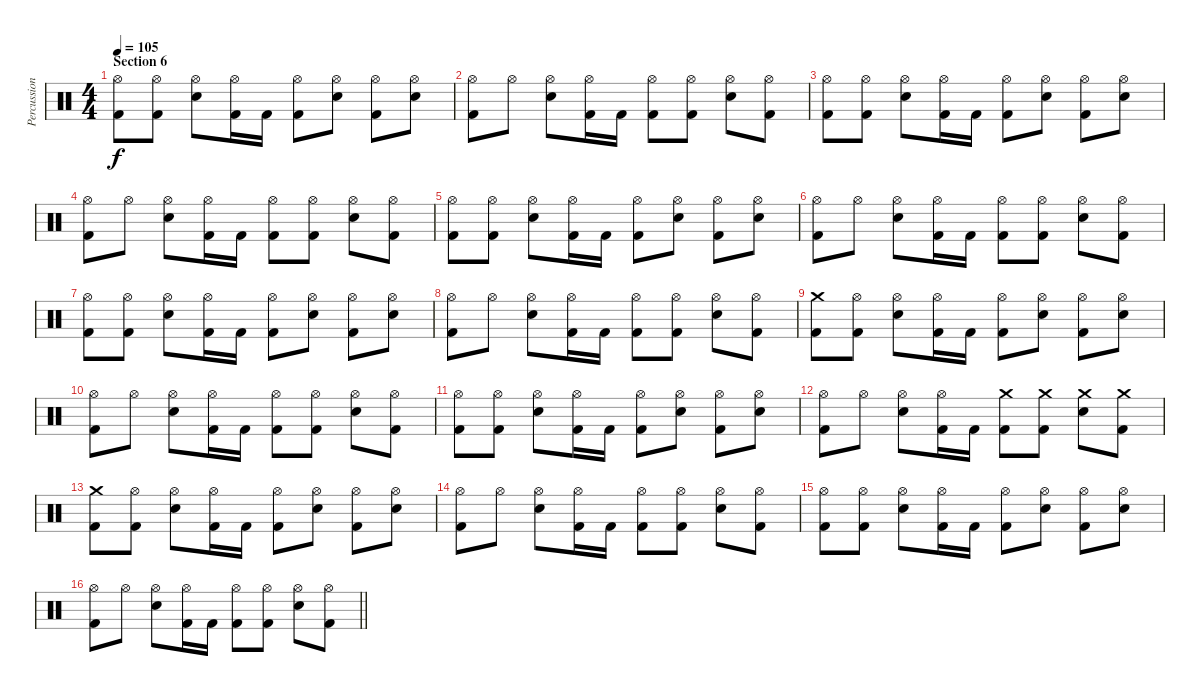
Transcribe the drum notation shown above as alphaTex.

\track ("Percussion" "Percussion") {instrument percussion}
\staff {score}
\articulation defaults
\ts (4 4)
\section ("" "Section 6")
\tempo 105
\clef neutral
\ks c
("Hi-Hat (open)" "Kick (hit) 2").8{dy f volume 13} ("Hi-Hat (open)" "Kick (hit) 2").8 ("Hi-Hat (open)" "Electric Snare (hit)").8 ("Hi-Hat (open)" "Kick (hit) 2").16 "Kick (hit) 2".16 ("Hi-Hat (open)" "Kick (hit) 2").8 ("Hi-Hat (open)" "Electric Snare (hit)").8 ("Hi-Hat (open)" "Kick (hit) 2").8 ("Hi-Hat (open)" "Electric Snare (hit)").8 |
("Hi-Hat (open)" "Kick (hit) 2").8 "Hi-Hat (open)".8 ("Hi-Hat (open)" "Electric Snare (hit)").8 ("Hi-Hat (open)" "Kick (hit) 2").16 "Kick (hit) 2".16 ("Hi-Hat (open)" "Kick (hit) 2").8 ("Hi-Hat (open)" "Kick (hit) 2").8 ("Hi-Hat (open)" "Electric Snare (hit)").8 ("Hi-Hat (open)" "Kick (hit) 2").8 |
("Hi-Hat (open)" "Kick (hit) 2").8 ("Hi-Hat (open)" "Kick (hit) 2").8 ("Hi-Hat (open)" "Electric Snare (hit)").8 ("Hi-Hat (open)" "Kick (hit) 2").16 "Kick (hit) 2".16 ("Hi-Hat (open)" "Kick (hit) 2").8 ("Hi-Hat (open)" "Electric Snare (hit)").8 ("Hi-Hat (open)" "Kick (hit) 2").8 ("Hi-Hat (open)" "Electric Snare (hit)").8 |
("Hi-Hat (open)" "Kick (hit) 2").8 "Hi-Hat (open)".8 ("Hi-Hat (open)" "Electric Snare (hit)").8 ("Hi-Hat (open)" "Kick (hit) 2").16 "Kick (hit) 2".16 ("Hi-Hat (open)" "Kick (hit) 2").8 ("Hi-Hat (open)" "Kick (hit) 2").8 ("Hi-Hat (open)" "Electric Snare (hit)").8 ("Hi-Hat (open)" "Kick (hit) 2").8 |
("Hi-Hat (open)" "Kick (hit) 2").8 ("Hi-Hat (open)" "Kick (hit) 2").8 ("Hi-Hat (open)" "Electric Snare (hit)").8 ("Hi-Hat (open)" "Kick (hit) 2").16 "Kick (hit) 2".16 ("Hi-Hat (open)" "Kick (hit) 2").8 ("Hi-Hat (open)" "Electric Snare (hit)").8 ("Hi-Hat (open)" "Kick (hit) 2").8 ("Hi-Hat (open)" "Electric Snare (hit)").8 |
("Hi-Hat (open)" "Kick (hit) 2").8 "Hi-Hat (open)".8 ("Hi-Hat (open)" "Electric Snare (hit)").8 ("Hi-Hat (open)" "Kick (hit) 2").16 "Kick (hit) 2".16 ("Hi-Hat (open)" "Kick (hit) 2").8 ("Hi-Hat (open)" "Kick (hit) 2").8 ("Hi-Hat (open)" "Electric Snare (hit)").8 ("Hi-Hat (open)" "Kick (hit) 2").8 |
("Hi-Hat (open)" "Kick (hit) 2").8 ("Hi-Hat (open)" "Kick (hit) 2").8 ("Hi-Hat (open)" "Electric Snare (hit)").8 ("Hi-Hat (open)" "Kick (hit) 2").16 "Kick (hit) 2".16 ("Hi-Hat (open)" "Kick (hit) 2").8 ("Hi-Hat (open)" "Electric Snare (hit)").8 ("Hi-Hat (open)" "Kick (hit) 2").8 ("Hi-Hat (open)" "Electric Snare (hit)").8 |
("Hi-Hat (open)" "Kick (hit) 2").8 "Hi-Hat (open)".8 ("Hi-Hat (open)" "Electric Snare (hit)").8 ("Hi-Hat (open)" "Kick (hit) 2").16 "Kick (hit) 2".16 ("Hi-Hat (open)" "Kick (hit) 2").8 ("Hi-Hat (open)" "Kick (hit) 2").8 ("Hi-Hat (open)" "Electric Snare (hit)").8 ("Hi-Hat (open)" "Kick (hit) 2").8 |
("Crash medium (hit)" "Kick (hit) 2").8 ("Hi-Hat (open)" "Kick (hit) 2").8 ("Hi-Hat (open)" "Electric Snare (hit)").8 ("Hi-Hat (open)" "Kick (hit) 2").16 "Kick (hit) 2".16 ("Hi-Hat (open)" "Kick (hit) 2").8 ("Hi-Hat (open)" "Electric Snare (hit)").8 ("Hi-Hat (open)" "Kick (hit) 2").8 ("Hi-Hat (open)" "Electric Snare (hit)").8 |
("Hi-Hat (open)" "Kick (hit) 2").8 "Hi-Hat (open)".8 ("Hi-Hat (open)" "Electric Snare (hit)").8 ("Hi-Hat (open)" "Kick (hit) 2").16 "Kick (hit) 2".16 ("Hi-Hat (open)" "Kick (hit) 2").8 ("Hi-Hat (open)" "Kick (hit) 2").8 ("Hi-Hat (open)" "Electric Snare (hit)").8 ("Hi-Hat (open)" "Kick (hit) 2").8 |
("Hi-Hat (open)" "Kick (hit) 2").8 ("Hi-Hat (open)" "Kick (hit) 2").8 ("Hi-Hat (open)" "Electric Snare (hit)").8 ("Hi-Hat (open)" "Kick (hit) 2").16 "Kick (hit) 2".16 ("Hi-Hat (open)" "Kick (hit) 2").8 ("Hi-Hat (open)" "Electric Snare (hit)").8 ("Hi-Hat (open)" "Kick (hit) 2").8 ("Hi-Hat (open)" "Electric Snare (hit)").8 |
("Hi-Hat (open)" "Kick (hit) 2").8 "Hi-Hat (open)".8 ("Hi-Hat (open)" "Electric Snare (hit)").8 ("Hi-Hat (open)" "Kick (hit) 2").16 "Kick (hit) 2".16 ("Crash medium (hit)" "Kick (hit) 2").8 ("Crash medium (hit)" "Kick (hit) 2").8 ("Crash medium (hit)" "Electric Snare (hit)").8 ("Crash medium (hit)" "Kick (hit) 2").8 |
("Crash medium (hit)" "Kick (hit) 2").8 ("Hi-Hat (open)" "Kick (hit) 2").8 ("Hi-Hat (open)" "Electric Snare (hit)").8 ("Hi-Hat (open)" "Kick (hit) 2").16 "Kick (hit) 2".16 ("Hi-Hat (open)" "Kick (hit) 2").8 ("Hi-Hat (open)" "Electric Snare (hit)").8 ("Hi-Hat (open)" "Kick (hit) 2").8 ("Hi-Hat (open)" "Electric Snare (hit)").8 |
("Hi-Hat (open)" "Kick (hit) 2").8 "Hi-Hat (open)".8 ("Hi-Hat (open)" "Electric Snare (hit)").8 ("Hi-Hat (open)" "Kick (hit) 2").16 "Kick (hit) 2".16 ("Hi-Hat (open)" "Kick (hit) 2").8 ("Hi-Hat (open)" "Kick (hit) 2").8 ("Hi-Hat (open)" "Electric Snare (hit)").8 ("Hi-Hat (open)" "Kick (hit) 2").8 |
("Hi-Hat (open)" "Kick (hit) 2").8 ("Hi-Hat (open)" "Kick (hit) 2").8 ("Hi-Hat (open)" "Electric Snare (hit)").8 ("Hi-Hat (open)" "Kick (hit) 2").16 "Kick (hit) 2".16 ("Hi-Hat (open)" "Kick (hit) 2").8 ("Hi-Hat (open)" "Electric Snare (hit)").8 ("Hi-Hat (open)" "Kick (hit) 2").8 ("Hi-Hat (open)" "Electric Snare (hit)").8 |
\barLineRight lightlight
("Hi-Hat (open)" "Kick (hit) 2").8 "Hi-Hat (open)".8 ("Hi-Hat (open)" "Electric Snare (hit)").8 ("Hi-Hat (open)" "Kick (hit) 2").16 "Kick (hit) 2".16 ("Hi-Hat (open)" "Kick (hit) 2").8 ("Hi-Hat (open)" "Kick (hit) 2").8 ("Hi-Hat (open)" "Electric Snare (hit)").8 ("Hi-Hat (open)" "Kick (hit) 2").8
